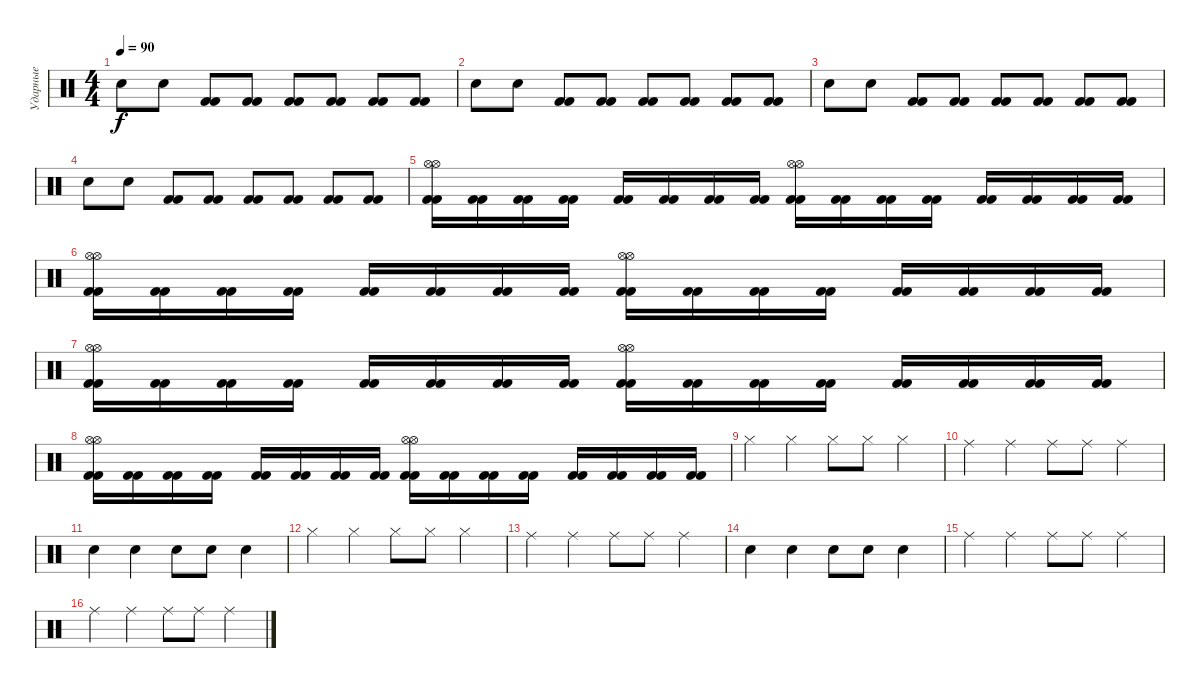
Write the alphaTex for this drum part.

\track ("Ударные" "Ударные") {instrument percussion}
\staff {score}
\articulation defaults
\ts (4 4)
\tempo 90
\clef neutral
\ks c "Electric Snare (hit)".8{dy f} "Electric Snare (hit)".8
("Kick (hit) 2" "Kick (hit) 2").8 ("Kick (hit) 2" "Kick (hit) 2").8 ("Kick (hit) 2" "Kick (hit) 2").8 ("Kick (hit) 2" "Kick (hit) 2").8 ("Kick (hit) 2" "Kick (hit) 2").8 ("Kick (hit) 2" "Kick (hit) 2").8 |
"Electric Snare (hit)".8 "Electric Snare (hit)".8 ("Kick (hit) 2" "Kick (hit) 2").8 ("Kick (hit) 2" "Kick (hit) 2").8 ("Kick (hit) 2" "Kick (hit) 2").8 ("Kick (hit) 2" "Kick (hit) 2").8 ("Kick (hit) 2" "Kick (hit) 2").8 ("Kick (hit) 2" "Kick (hit) 2").8 |
"Electric Snare (hit)".8 "Electric Snare (hit)".8 ("Kick (hit) 2" "Kick (hit) 2").8 ("Kick (hit) 2" "Kick (hit) 2").8 ("Kick (hit) 2" "Kick (hit) 2").8 ("Kick (hit) 2" "Kick (hit) 2").8 ("Kick (hit) 2" "Kick (hit) 2").8 ("Kick (hit) 2" "Kick (hit) 2").8 |
"Electric Snare (hit)".8 "Electric Snare (hit)".8 ("Kick (hit) 2" "Kick (hit) 2").8 ("Kick (hit) 2" "Kick (hit) 2").8 ("Kick (hit) 2" "Kick (hit) 2").8 ("Kick (hit) 2" "Kick (hit) 2").8 ("Kick (hit) 2" "Kick (hit) 2").8 ("Kick (hit) 2" "Kick (hit) 2").8 |
("Kick (hit) 2" "Kick (hit) 2" "Hi-Hat (open)" "Hi-Hat (open)").16 ("Kick (hit) 2" "Kick (hit) 2").16 ("Kick (hit) 2" "Kick (hit) 2").16 ("Kick (hit) 2" "Kick (hit) 2").16 ("Kick (hit) 2" "Kick (hit) 2").16 ("Kick (hit) 2" "Kick (hit) 2").16 ("Kick (hit) 2" "Kick (hit) 2").16 ("Kick (hit) 2" "Kick (hit) 2").16 ("Kick (hit) 2" "Kick (hit) 2" "Hi-Hat (open)" "Hi-Hat (open)").16 ("Kick (hit) 2" "Kick (hit) 2").16 ("Kick (hit) 2" "Kick (hit) 2").16 ("Kick (hit) 2" "Kick (hit) 2").16 ("Kick (hit) 2" "Kick (hit) 2").16 ("Kick (hit) 2" "Kick (hit) 2").16 ("Kick (hit) 2" "Kick (hit) 2").16 ("Kick (hit) 2" "Kick (hit) 2").16 |
("Kick (hit) 2" "Kick (hit) 2" "Hi-Hat (open)" "Hi-Hat (open)").16 ("Kick (hit) 2" "Kick (hit) 2").16 ("Kick (hit) 2" "Kick (hit) 2").16 ("Kick (hit) 2" "Kick (hit) 2").16 ("Kick (hit) 2" "Kick (hit) 2").16 ("Kick (hit) 2" "Kick (hit) 2").16 ("Kick (hit) 2" "Kick (hit) 2").16 ("Kick (hit) 2" "Kick (hit) 2").16 ("Kick (hit) 2" "Kick (hit) 2" "Hi-Hat (open)" "Hi-Hat (open)").16 ("Kick (hit) 2" "Kick (hit) 2").16 ("Kick (hit) 2" "Kick (hit) 2").16 ("Kick (hit) 2" "Kick (hit) 2").16 ("Kick (hit) 2" "Kick (hit) 2").16 ("Kick (hit) 2" "Kick (hit) 2").16 ("Kick (hit) 2" "Kick (hit) 2").16 ("Kick (hit) 2" "Kick (hit) 2").16 |
("Kick (hit) 2" "Kick (hit) 2" "Hi-Hat (open)" "Hi-Hat (open)").16 ("Kick (hit) 2" "Kick (hit) 2").16 ("Kick (hit) 2" "Kick (hit) 2").16 ("Kick (hit) 2" "Kick (hit) 2").16 ("Kick (hit) 2" "Kick (hit) 2").16 ("Kick (hit) 2" "Kick (hit) 2").16 ("Kick (hit) 2" "Kick (hit) 2").16 ("Kick (hit) 2" "Kick (hit) 2").16 ("Kick (hit) 2" "Kick (hit) 2" "Hi-Hat (open)" "Hi-Hat (open)").16 ("Kick (hit) 2" "Kick (hit) 2").16 ("Kick (hit) 2" "Kick (hit) 2").16 ("Kick (hit) 2" "Kick (hit) 2").16 ("Kick (hit) 2" "Kick (hit) 2").16 ("Kick (hit) 2" "Kick (hit) 2").16 ("Kick (hit) 2" "Kick (hit) 2").16 ("Kick (hit) 2" "Kick (hit) 2").16 |
("Kick (hit) 2" "Kick (hit) 2" "Hi-Hat (open)" "Hi-Hat (open)").16 ("Kick (hit) 2" "Kick (hit) 2").16 ("Kick (hit) 2" "Kick (hit) 2").16 ("Kick (hit) 2" "Kick (hit) 2").16 ("Kick (hit) 2" "Kick (hit) 2").16 ("Kick (hit) 2" "Kick (hit) 2").16 ("Kick (hit) 2" "Kick (hit) 2").16 ("Kick (hit) 2" "Kick (hit) 2").16 ("Kick (hit) 2" "Kick (hit) 2" "Hi-Hat (open)" "Hi-Hat (open)").16 ("Kick (hit) 2" "Kick (hit) 2").16 ("Kick (hit) 2" "Kick (hit) 2").16 ("Kick (hit) 2" "Kick (hit) 2").16 ("Kick (hit) 2" "Kick (hit) 2").16 ("Kick (hit) 2" "Kick (hit) 2").16 ("Kick (hit) 2" "Kick (hit) 2").16 ("Kick (hit) 2" "Kick (hit) 2").16 |
"Hi-Hat (closed)".4 "Hi-Hat (closed)".4 "Hi-Hat (closed)".8 "Hi-Hat (closed)".8 "Hi-Hat (closed)".4 |
"Ride (middle)".4 "Ride (middle)".4 "Ride (middle)".8 "Ride (middle)".8 "Ride (middle)".4 |
"Electric Snare (hit)".4 "Electric Snare (hit)".4 "Electric Snare (hit)".8 "Electric Snare (hit)".8 "Electric Snare (hit)".4 |
"Hi-Hat (closed)".4 "Hi-Hat (closed)".4 "Hi-Hat (closed)".8 "Hi-Hat (closed)".8 "Hi-Hat (closed)".4 |
"Ride (middle)".4 "Ride (middle)".4 "Ride (middle)".8 "Ride (middle)".8 "Ride (middle)".4 |
"Electric Snare (hit)".4 "Electric Snare (hit)".4 "Electric Snare (hit)".8 "Electric Snare (hit)".8 "Electric Snare (hit)".4 |
"Ride (middle)".4 "Ride (middle)".4 "Ride (middle)".8 "Ride (middle)".8 "Ride (middle)".4 |
"Ride (middle)".4 "Ride (middle)".4 "Ride (middle)".8 "Ride (middle)".8 "Ride (middle)".4
